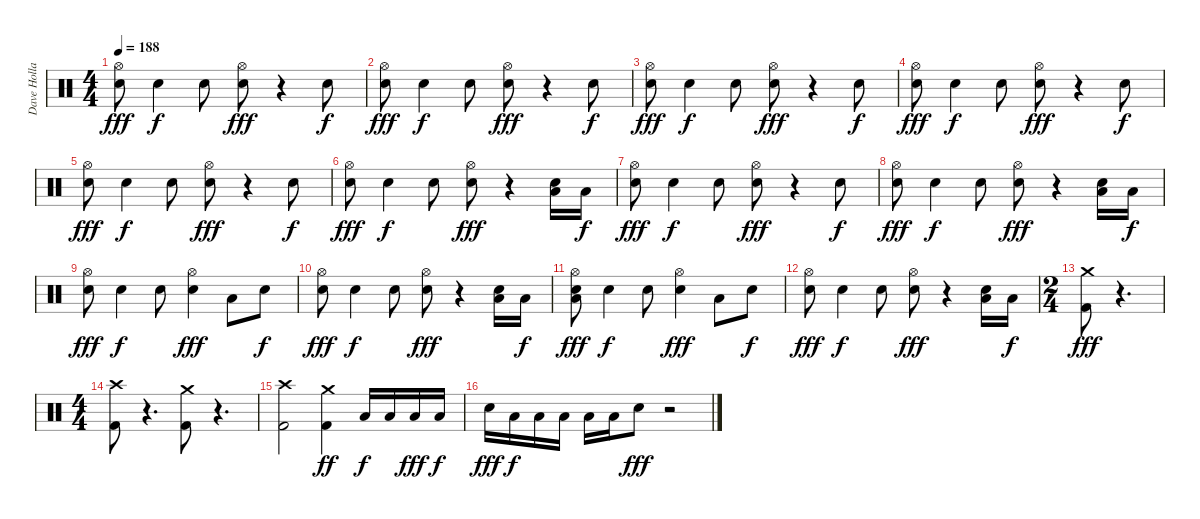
\track ("Dave Holland" "Dave Holla") {instrument percussion}
\staff {score}
\articulation defaults
\ts (4 4)
\tempo 188
\clef neutral
\ks c
("Hi-Hat (open)" "Snare (hit) 2").8{dy fff} "Snare (hit) 2".4{dy f} "Snare (hit) 2".8 ("Hi-Hat (open)" "Metronome (bell)").8{dy fff} r.4 "Snare (hit) 2".8{dy f} |
("Hi-Hat (open)" "Snare (hit) 2").8{dy fff} "Snare (hit) 2".4{dy f} "Snare (hit) 2".8 ("Hi-Hat (open)" "Metronome (bell)").8{dy fff} r.4 "Snare (hit) 2".8{dy f} |
("Hi-Hat (open)" "Snare (hit) 2").8{dy fff} "Snare (hit) 2".4{dy f} "Snare (hit) 2".8 ("Hi-Hat (open)" "Metronome (bell)").8{dy fff} r.4 "Snare (hit) 2".8{dy f} |
("Hi-Hat (open)" "Snare (hit) 2").8{dy fff} "Snare (hit) 2".4{dy f} "Snare (hit) 2".8 ("Hi-Hat (open)" "Metronome (bell)").8{dy fff} r.4 "Snare (hit) 2".8{dy f} |
("Hi-Hat (open)" "Snare (hit) 2").8{dy fff} "Snare (hit) 2".4{dy f} "Snare (hit) 2".8 ("Hi-Hat (open)" "Metronome (bell)").8{dy fff} r.4 "Snare (hit) 2".8{dy f} |
("Hi-Hat (open)" "Snare (hit) 2").8{dy fff} "Snare (hit) 2".4{dy f} "Snare (hit) 2".8 ("Hi-Hat (open)" "Metronome (bell)").8{dy fff} r.4 ("Low Tom (hit)" "Snare (hit) 2").16 "Low Tom (hit)".16{dy f} |
("Hi-Hat (open)" "Snare (hit) 2").8{dy fff} "Snare (hit) 2".4{dy f} "Snare (hit) 2".8 ("Hi-Hat (open)" "Metronome (bell)").8{dy fff} r.4 "Snare (hit) 2".8{dy f} |
("Hi-Hat (open)" "Snare (hit) 2").8{dy fff} "Snare (hit) 2".4{dy f} "Snare (hit) 2".8 ("Hi-Hat (open)" "Metronome (bell)").8{dy fff} r.4 ("Low Tom (hit)" "Snare (hit) 2").16 "Low Tom (hit)".16{dy f} |
("Hi-Hat (open)" "Snare (hit) 2").8{dy fff} "Snare (hit) 2".4{dy f} "Snare (hit) 2".8 ("Hi-Hat (open)" "Metronome (bell)").4{dy fff} "Low Tom (hit)".8 "Snare (hit) 2".8{dy f} |
("Hi-Hat (open)" "Snare (hit) 2").8{dy fff} "Snare (hit) 2".4{dy f} "Snare (hit) 2".8 ("Hi-Hat (open)" "Metronome (bell)").8{dy fff} r.4 ("Low Tom (hit)" "Snare (hit) 2").16 "Low Tom (hit)".16{dy f} |
("Low Tom (hit)" "Hi-Hat (open)" "Snare (hit) 2").8{dy fff} "Snare (hit) 2".4{dy f} "Snare (hit) 2".8 ("Hi-Hat (open)" "Metronome (bell)").4{dy fff} "Low Tom (hit)".8 "Snare (hit) 2".8{dy f} |
("Hi-Hat (open)" "Snare (hit) 2").8{dy fff} "Snare (hit) 2".4{dy f} "Snare (hit) 2".8 ("Hi-Hat (open)" "Metronome (bell)").8{dy fff} r.4 ("Low Tom (hit)" "Snare (hit) 2").16 "Low Tom (hit)".16{dy f} |
\ts (2 4)
("Kick (hit) 2" "Crash medium (hit)").8{dy fff} r.4{d} |
\ts (4 4)
("Kick (hit) 2" "Crash high (hit)").8 r.4{d} ("Kick (hit) 2" "Crash medium (hit)").8 r.4{d} |
("Kick (hit) 2" "Crash high (hit)").2 ("Crash medium (hit)" "Kick (hit) 2").4{dy ff} "Low Tom (hit)".16{dy f} "Low Tom (hit)".16 "Low Tom (hit)".16{dy fff} "Low Tom (hit)".16{dy f} |
"Snare (hit) 2".16{dy fff} "Low Tom (hit)".16{dy f} "Low Tom (hit)".16 "Low Tom (hit)".16 "Low Tom (hit)".16 "Low Tom (hit)".16 "Snare (hit) 2".8{dy fff} r.2
